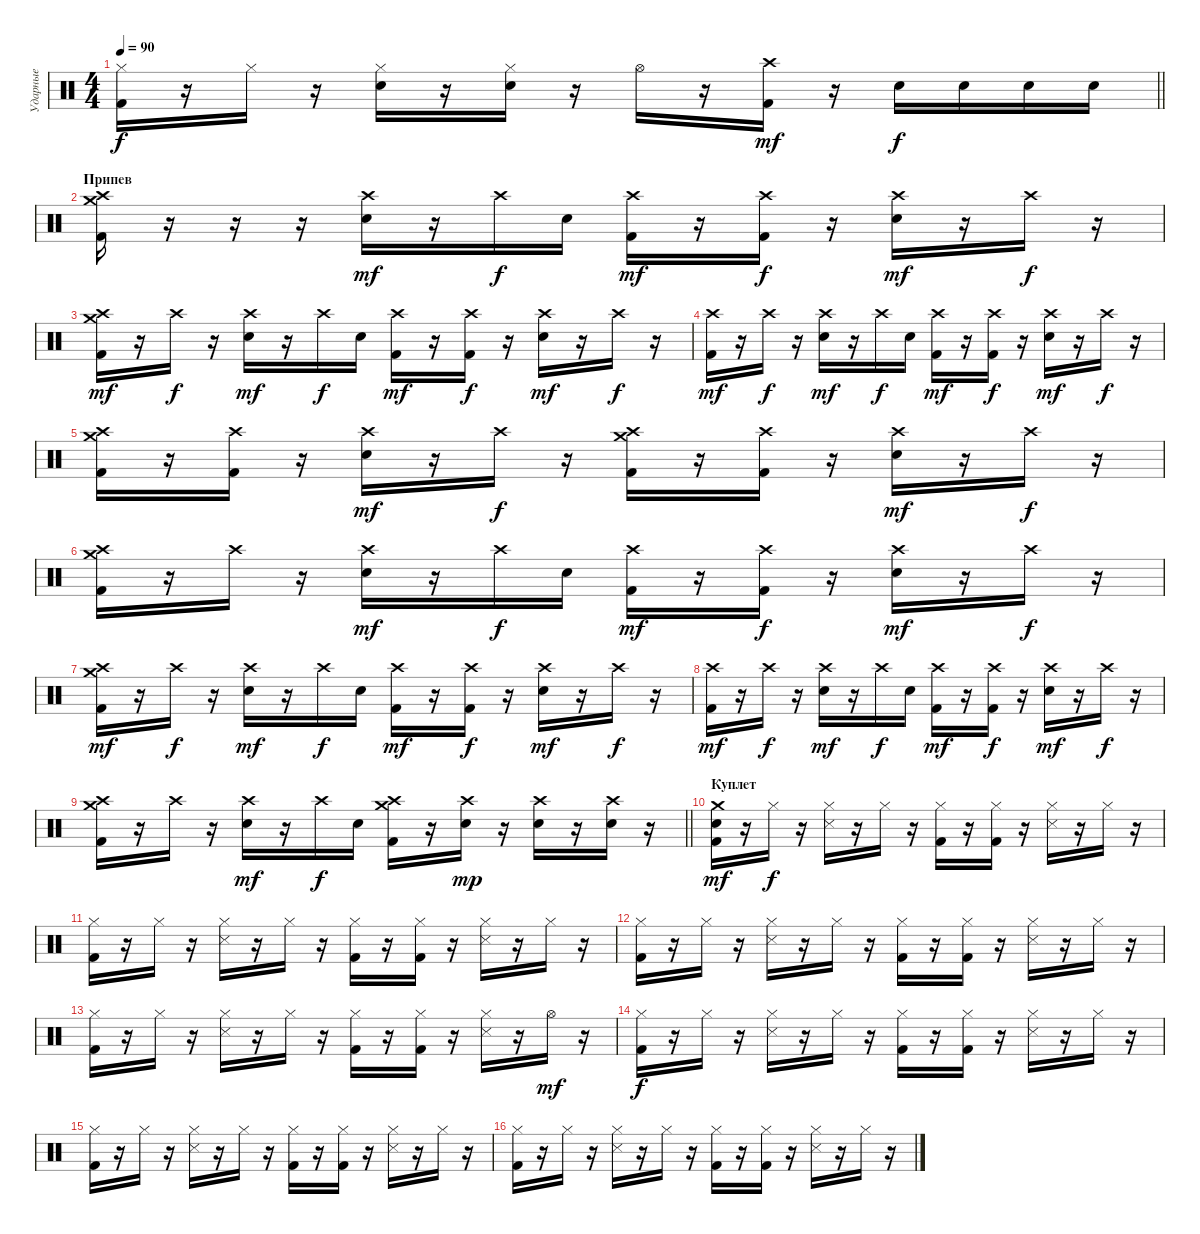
\track ("Ударные" "Ударные") {instrument percussion}
\staff {score}
\articulation defaults
\ts (4 4)
\tempo 90
\clef neutral
\barLineRight lightlight
\ks c
("Hi-Hat (closed)" "Kick (hit) 2").16{dy f} r.16 "Hi-Hat (closed)".16 r.16 ("Hi-Hat (closed)" "Electric Snare (hit)").16 r.16 ("Hi-Hat (closed)" "Electric Snare (hit)").16 r.16 "Hi-Hat (open)".16 r.16 ("Crash high (hit)" "Kick (hit) 2").16{dy mf} r.16 "Electric Snare (hit)".16{dy f} "Electric Snare (hit)".16 "Electric Snare (hit)".16 "Electric Snare (hit)".16 |
\section ("" "Припев")
("Crash medium (hit)" "Crash high (hit)" "Kick (hit) 2").16 r.16 r.16 r.16 ("Crash high (hit)" "Electric Snare (hit)").16{dy mf} r.16 "Crash high (hit)".16{dy f} "Electric Snare (hit)".16 ("Crash high (hit)" "Kick (hit) 2").16{dy mf} r.16 ("Crash high (hit)" "Kick (hit) 2").16{dy f} r.16 ("Crash high (hit)" "Electric Snare (hit)").16{dy mf} r.16 "Crash high (hit)".16{dy f} r.16 |
("Crash medium (hit)" "Crash high (hit)" "Kick (hit) 2").16{dy mf} r.16 "Crash high (hit)".16{dy f} r.16 ("Crash high (hit)" "Electric Snare (hit)").16{dy mf} r.16 "Crash high (hit)".16{dy f} "Electric Snare (hit)".16 ("Crash high (hit)" "Kick (hit) 2").16{dy mf} r.16 ("Crash high (hit)" "Kick (hit) 2").16{dy f} r.16 ("Crash high (hit)" "Electric Snare (hit)").16{dy mf} r.16 "Crash high (hit)".16{dy f} r.16 |
("Crash high (hit)" "Kick (hit) 2").16{dy mf} r.16 "Crash high (hit)".16{dy f} r.16 ("Crash high (hit)" "Electric Snare (hit)").16{dy mf} r.16 "Crash high (hit)".16{dy f} "Electric Snare (hit)".16 ("Crash high (hit)" "Kick (hit) 2").16{dy mf} r.16 ("Crash high (hit)" "Kick (hit) 2").16{dy f} r.16 ("Crash high (hit)" "Electric Snare (hit)").16{dy mf} r.16 "Crash high (hit)".16{dy f} r.16 |
("Crash medium (hit)" "Crash high (hit)" "Kick (hit) 2").16 r.16 ("Crash high (hit)" "Kick (hit) 2").16 r.16 ("Crash high (hit)" "Electric Snare (hit)").16{dy mf} r.16 "Crash high (hit)".16{dy f} r.16 ("Crash medium (hit)" "Crash high (hit)" "Kick (hit) 2").16 r.16 ("Crash high (hit)" "Kick (hit) 2").16 r.16 ("Crash high (hit)" "Electric Snare (hit)").16{dy mf} r.16 "Crash high (hit)".16{dy f} r.16 |
("Crash medium (hit)" "Crash high (hit)" "Kick (hit) 2").16 r.16 "Crash high (hit)".16 r.16 ("Crash high (hit)" "Electric Snare (hit)").16{dy mf} r.16 "Crash high (hit)".16{dy f} "Electric Snare (hit)".16 ("Crash high (hit)" "Kick (hit) 2").16{dy mf} r.16 ("Crash high (hit)" "Kick (hit) 2").16{dy f} r.16 ("Crash high (hit)" "Electric Snare (hit)").16{dy mf} r.16 "Crash high (hit)".16{dy f} r.16 |
("Crash medium (hit)" "Crash high (hit)" "Kick (hit) 2").16{dy mf} r.16 "Crash high (hit)".16{dy f} r.16 ("Crash high (hit)" "Electric Snare (hit)").16{dy mf} r.16 "Crash high (hit)".16{dy f} "Electric Snare (hit)".16 ("Crash high (hit)" "Kick (hit) 2").16{dy mf} r.16 ("Crash high (hit)" "Kick (hit) 2").16{dy f} r.16 ("Crash high (hit)" "Electric Snare (hit)").16{dy mf} r.16 "Crash high (hit)".16{dy f} r.16 |
("Crash high (hit)" "Kick (hit) 2").16{dy mf} r.16 "Crash high (hit)".16{dy f} r.16 ("Crash high (hit)" "Electric Snare (hit)").16{dy mf} r.16 "Crash high (hit)".16{dy f} "Electric Snare (hit)".16 ("Crash high (hit)" "Kick (hit) 2").16{dy mf} r.16 ("Crash high (hit)" "Kick (hit) 2").16{dy f} r.16 ("Crash high (hit)" "Electric Snare (hit)").16{dy mf} r.16 "Crash high (hit)".16{dy f} r.16 |
\barLineRight lightlight
("Crash medium (hit)" "Crash high (hit)" "Kick (hit) 2").16 r.16 "Crash high (hit)".16 r.16 ("Crash high (hit)" "Electric Snare (hit)").16{dy mf} r.16 "Crash high (hit)".16{dy f} "Electric Snare (hit)".16 ("Crash medium (hit)" "Crash high (hit)" "Kick (hit) 2").16 r.16 ("Crash high (hit)" "Electric Snare (hit)").16{dy mp} r.16 ("Crash high (hit)" "Electric Snare (hit)").16 r.16 ("Crash high (hit)" "Electric Snare (hit)").16 r.16 |
\section ("" "Куплет")
("Crash medium (hit)" "Electric Snare (hit)" "Kick (hit) 2").16{dy mf} r.16 "Hi-Hat (closed)".16{dy f} r.16 ("Hi-Hat (closed)" "Snare (side stick) 3").16 r.16 "Hi-Hat (closed)".16 r.16 ("Hi-Hat (closed)" "Kick (hit) 2").16 r.16 ("Hi-Hat (closed)" "Kick (hit) 2").16 r.16 ("Hi-Hat (closed)" "Snare (side stick) 3").16 r.16 "Hi-Hat (closed)".16 r.16 |
("Hi-Hat (closed)" "Kick (hit) 2").16 r.16 "Hi-Hat (closed)".16 r.16 ("Hi-Hat (closed)" "Snare (side stick) 3").16 r.16 "Hi-Hat (closed)".16 r.16 ("Hi-Hat (closed)" "Kick (hit) 2").16 r.16 ("Hi-Hat (closed)" "Kick (hit) 2").16 r.16 ("Hi-Hat (closed)" "Snare (side stick) 3").16 r.16 "Hi-Hat (closed)".16 r.16 |
("Hi-Hat (closed)" "Kick (hit) 2").16 r.16 "Hi-Hat (closed)".16 r.16 ("Hi-Hat (closed)" "Snare (side stick) 3").16 r.16 "Hi-Hat (closed)".16 r.16 ("Hi-Hat (closed)" "Kick (hit) 2").16 r.16 ("Hi-Hat (closed)" "Kick (hit) 2").16 r.16 ("Hi-Hat (closed)" "Snare (side stick) 3").16 r.16 "Hi-Hat (closed)".16 r.16 |
("Hi-Hat (closed)" "Kick (hit) 2").16 r.16 "Hi-Hat (closed)".16 r.16 ("Hi-Hat (closed)" "Snare (side stick) 3").16 r.16 "Hi-Hat (closed)".16 r.16 ("Hi-Hat (closed)" "Kick (hit) 2").16 r.16 ("Hi-Hat (closed)" "Kick (hit) 2").16 r.16 ("Hi-Hat (closed)" "Snare (side stick) 3").16 r.16 "Hi-Hat (open)".16{dy mf} r.16 |
("Hi-Hat (closed)" "Kick (hit) 2").16{dy f} r.16 "Hi-Hat (closed)".16 r.16 ("Hi-Hat (closed)" "Snare (side stick) 3").16 r.16 "Hi-Hat (closed)".16 r.16 ("Hi-Hat (closed)" "Kick (hit) 2").16 r.16 ("Hi-Hat (closed)" "Kick (hit) 2").16 r.16 ("Hi-Hat (closed)" "Snare (side stick) 3").16 r.16 "Hi-Hat (closed)".16 r.16 |
("Hi-Hat (closed)" "Kick (hit) 2").16 r.16 "Hi-Hat (closed)".16 r.16 ("Hi-Hat (closed)" "Snare (side stick) 3").16 r.16 "Hi-Hat (closed)".16 r.16 ("Hi-Hat (closed)" "Kick (hit) 2").16 r.16 ("Hi-Hat (closed)" "Kick (hit) 2").16 r.16 ("Hi-Hat (closed)" "Snare (side stick) 3").16 r.16 "Hi-Hat (closed)".16 r.16 |
("Hi-Hat (closed)" "Kick (hit) 2").16 r.16 "Hi-Hat (closed)".16 r.16 ("Hi-Hat (closed)" "Snare (side stick) 3").16 r.16 "Hi-Hat (closed)".16 r.16 ("Hi-Hat (closed)" "Kick (hit) 2").16 r.16 ("Hi-Hat (closed)" "Kick (hit) 2").16 r.16 ("Hi-Hat (closed)" "Snare (side stick) 3").16 r.16 "Hi-Hat (closed)".16 r.16
